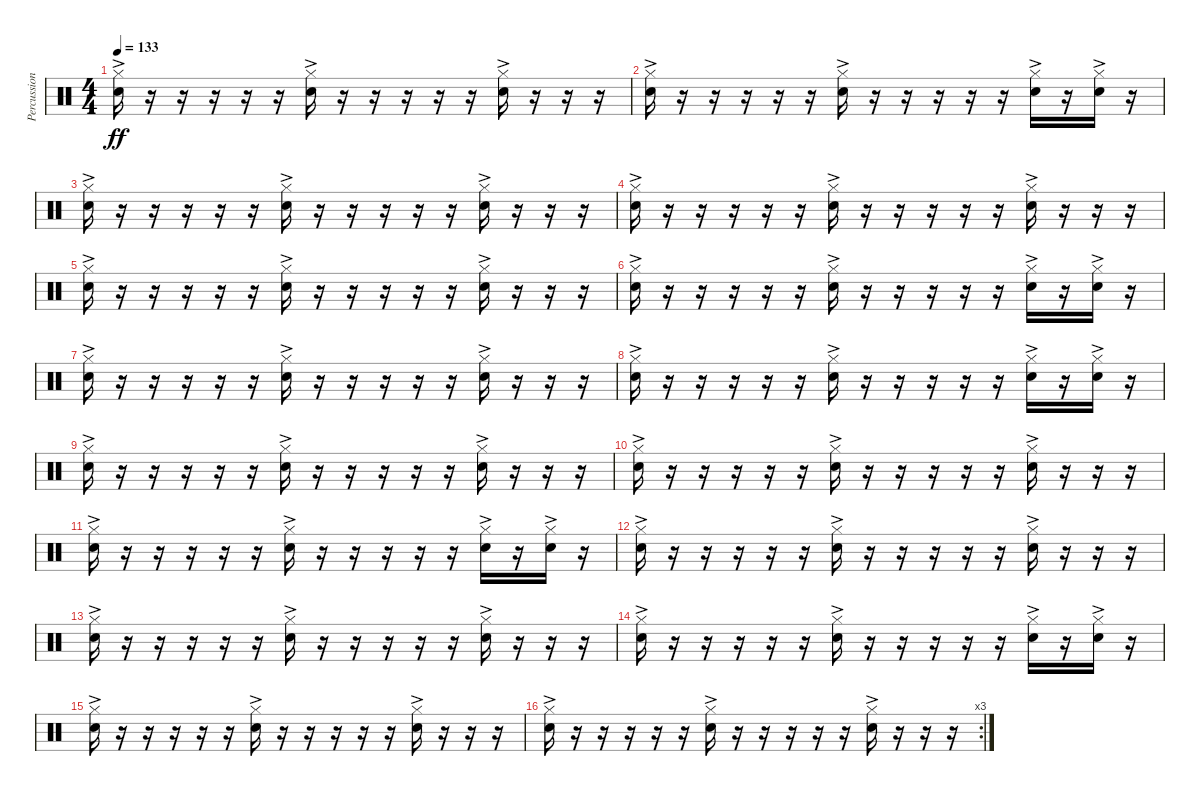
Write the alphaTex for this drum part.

\track ("Percussion" "Percussion") {instrument percussion bank 2}
\staff {score}
\articulation defaults
\ts (4 4)
\tempo 133
\clef neutral
\ks c
("Hi-Hat (closed)"{ac} "Snare (hit) 2"{ac}).16{dy ff} r.16 r.16 r.16 r.16 r.16 ("Hi-Hat (closed)"{ac} "Snare (hit) 2"{ac}).16 r.16 r.16 r.16 r.16 r.16 ("Hi-Hat (closed)"{ac} "Snare (hit) 2"{ac}).16 r.16 r.16 r.16 |
("Hi-Hat (closed)"{ac} "Snare (hit) 2"{ac}).16 r.16 r.16 r.16 r.16 r.16 ("Hi-Hat (closed)"{ac} "Snare (hit) 2"{ac}).16 r.16 r.16 r.16 r.16 r.16 ("Hi-Hat (closed)"{ac} "Snare (hit) 2"{ac}).16 r.16 ("Hi-Hat (closed)"{ac} "Snare (hit) 2"{ac}).16 r.16 |
("Hi-Hat (closed)"{ac} "Snare (hit) 2"{ac}).16 r.16 r.16 r.16 r.16 r.16 ("Hi-Hat (closed)"{ac} "Snare (hit) 2"{ac}).16 r.16 r.16 r.16 r.16 r.16 ("Hi-Hat (closed)"{ac} "Snare (hit) 2"{ac}).16 r.16 r.16 r.16 |
("Hi-Hat (closed)"{ac} "Snare (hit) 2"{ac}).16 r.16 r.16 r.16 r.16 r.16 ("Hi-Hat (closed)"{ac} "Snare (hit) 2"{ac}).16 r.16 r.16 r.16 r.16 r.16 ("Hi-Hat (closed)"{ac} "Snare (hit) 2"{ac}).16 r.16 r.16 r.16 |
("Hi-Hat (closed)"{ac} "Snare (hit) 2"{ac}).16 r.16 r.16 r.16 r.16 r.16 ("Hi-Hat (closed)"{ac} "Snare (hit) 2"{ac}).16 r.16 r.16 r.16 r.16 r.16 ("Hi-Hat (closed)"{ac} "Snare (hit) 2"{ac}).16 r.16 r.16 r.16 |
("Hi-Hat (closed)"{ac} "Snare (hit) 2"{ac}).16 r.16 r.16 r.16 r.16 r.16 ("Hi-Hat (closed)"{ac} "Snare (hit) 2"{ac}).16 r.16 r.16 r.16 r.16 r.16 ("Hi-Hat (closed)"{ac} "Snare (hit) 2"{ac}).16 r.16 ("Hi-Hat (closed)"{ac} "Snare (hit) 2"{ac}).16 r.16 |
("Hi-Hat (closed)"{ac} "Snare (hit) 2"{ac}).16 r.16 r.16 r.16 r.16 r.16 ("Hi-Hat (closed)"{ac} "Snare (hit) 2"{ac}).16 r.16 r.16 r.16 r.16 r.16 ("Hi-Hat (closed)"{ac} "Snare (hit) 2"{ac}).16 r.16 r.16 r.16 |
("Hi-Hat (closed)"{ac} "Snare (hit) 2"{ac}).16 r.16 r.16 r.16 r.16 r.16 ("Hi-Hat (closed)"{ac} "Snare (hit) 2"{ac}).16 r.16 r.16 r.16 r.16 r.16 ("Hi-Hat (closed)"{ac} "Snare (hit) 2"{ac}).16 r.16 ("Hi-Hat (closed)"{ac} "Snare (hit) 2"{ac}).16 r.16 |
("Hi-Hat (closed)"{ac} "Snare (hit) 2"{ac}).16 r.16 r.16 r.16 r.16 r.16 ("Hi-Hat (closed)"{ac} "Snare (hit) 2"{ac}).16 r.16 r.16 r.16 r.16 r.16 ("Hi-Hat (closed)"{ac} "Snare (hit) 2"{ac}).16 r.16 r.16 r.16 |
("Hi-Hat (closed)"{ac} "Snare (hit) 2"{ac}).16 r.16 r.16 r.16 r.16 r.16 ("Hi-Hat (closed)"{ac} "Snare (hit) 2"{ac}).16 r.16 r.16 r.16 r.16 r.16 ("Hi-Hat (closed)"{ac} "Snare (hit) 2"{ac}).16 r.16 r.16 r.16 |
("Hi-Hat (closed)"{ac} "Snare (hit) 2"{ac}).16 r.16 r.16 r.16 r.16 r.16 ("Hi-Hat (closed)"{ac} "Snare (hit) 2"{ac}).16 r.16 r.16 r.16 r.16 r.16 ("Hi-Hat (closed)"{ac} "Snare (hit) 2"{ac}).16 r.16 ("Hi-Hat (closed)"{ac} "Snare (hit) 2"{ac}).16 r.16 |
("Hi-Hat (closed)"{ac} "Snare (hit) 2"{ac}).16 r.16 r.16 r.16 r.16 r.16 ("Hi-Hat (closed)"{ac} "Snare (hit) 2"{ac}).16 r.16 r.16 r.16 r.16 r.16 ("Hi-Hat (closed)"{ac} "Snare (hit) 2"{ac}).16 r.16 r.16 r.16 |
("Hi-Hat (closed)"{ac} "Snare (hit) 2"{ac}).16 r.16 r.16 r.16 r.16 r.16 ("Hi-Hat (closed)"{ac} "Snare (hit) 2"{ac}).16 r.16 r.16 r.16 r.16 r.16 ("Hi-Hat (closed)"{ac} "Snare (hit) 2"{ac}).16 r.16 r.16 r.16 |
("Hi-Hat (closed)"{ac} "Snare (hit) 2"{ac}).16 r.16 r.16 r.16 r.16 r.16 ("Hi-Hat (closed)"{ac} "Snare (hit) 2"{ac}).16 r.16 r.16 r.16 r.16 r.16 ("Hi-Hat (closed)"{ac} "Snare (hit) 2"{ac}).16 r.16 ("Hi-Hat (closed)"{ac} "Snare (hit) 2"{ac}).16 r.16 |
("Hi-Hat (closed)"{ac} "Snare (hit) 2"{ac}).16 r.16 r.16 r.16 r.16 r.16 ("Hi-Hat (closed)"{ac} "Snare (hit) 2"{ac}).16 r.16 r.16 r.16 r.16 r.16 ("Hi-Hat (closed)"{ac} "Snare (hit) 2"{ac}).16 r.16 r.16 r.16 |
\rc 3
("Hi-Hat (closed)"{ac} "Snare (hit) 2"{ac}).16 r.16 r.16 r.16 r.16 r.16 ("Hi-Hat (closed)"{ac} "Snare (hit) 2"{ac}).16 r.16 r.16 r.16 r.16 r.16 ("Hi-Hat (closed)"{ac} "Snare (hit) 2"{ac}).16 r.16 r.16 r.16
